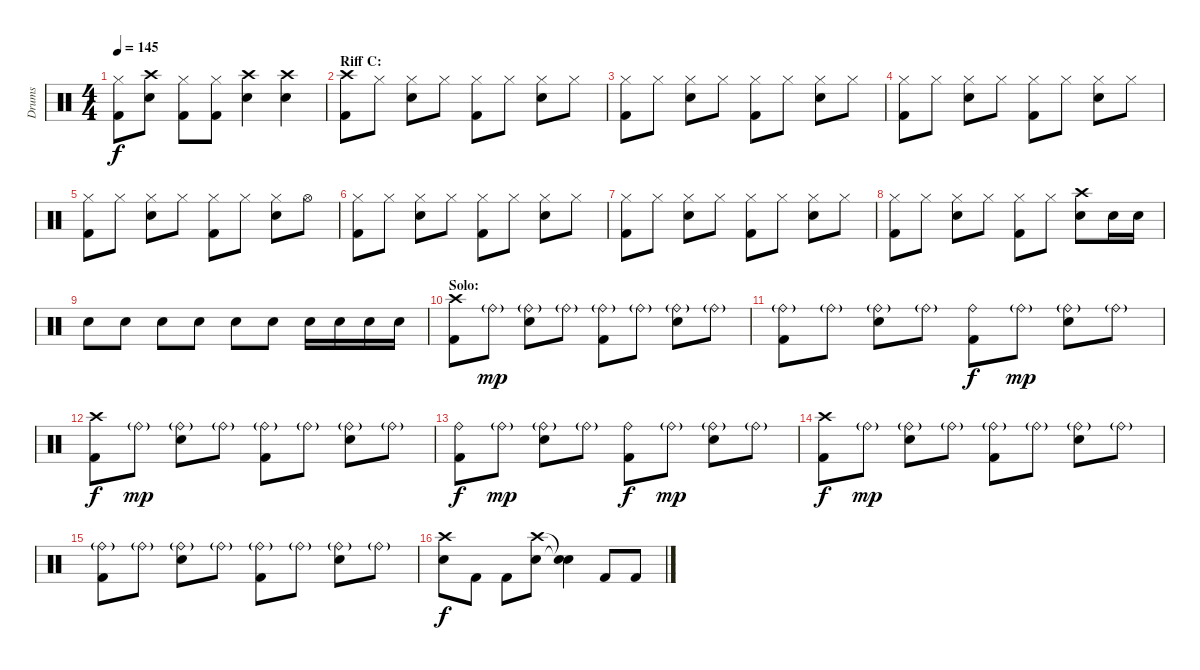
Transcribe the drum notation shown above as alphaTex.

\track ("Drums" "Drums") {instrument percussion}
\staff {score}
\articulation defaults
\ts (4 4)
\tempo 145
\clef neutral
\ks c
("Hi-Hat (closed)" "Kick (hit) 2").8{dy f} ("Crash high (hit)" "Electric Snare (hit)").8 ("Hi-Hat (closed)" "Kick (hit) 2").8 ("Hi-Hat (closed)" "Kick (hit) 2").8 ("Crash high (hit)" "Electric Snare (hit)").4 ("Crash high (hit)" "Electric Snare (hit)").4 |
\section ("" "Riff C:")
("Crash high (hit)" "Kick (hit) 2").8 "Hi-Hat (closed)".8 ("Hi-Hat (closed)" "Electric Snare (hit)").8 "Hi-Hat (closed)".8 ("Hi-Hat (closed)" "Kick (hit) 2").8 "Hi-Hat (closed)".8 ("Hi-Hat (closed)" "Electric Snare (hit)").8 "Hi-Hat (closed)".8 |
("Hi-Hat (closed)" "Kick (hit) 2").8 "Hi-Hat (closed)".8 ("Hi-Hat (closed)" "Electric Snare (hit)").8 "Hi-Hat (closed)".8 ("Hi-Hat (closed)" "Kick (hit) 2").8 "Hi-Hat (closed)".8 ("Hi-Hat (closed)" "Electric Snare (hit)").8 "Hi-Hat (closed)".8 |
("Hi-Hat (closed)" "Kick (hit) 2").8 "Hi-Hat (closed)".8 ("Hi-Hat (closed)" "Electric Snare (hit)").8 "Hi-Hat (closed)".8 ("Hi-Hat (closed)" "Kick (hit) 2").8 "Hi-Hat (closed)".8 ("Hi-Hat (closed)" "Electric Snare (hit)").8 "Hi-Hat (closed)".8 |
("Hi-Hat (closed)" "Kick (hit) 2").8 "Hi-Hat (closed)".8 ("Hi-Hat (closed)" "Electric Snare (hit)").8 "Hi-Hat (closed)".8 ("Hi-Hat (closed)" "Kick (hit) 2").8 "Hi-Hat (closed)".8 ("Hi-Hat (closed)" "Electric Snare (hit)").8 "Hi-Hat (open)".8 |
("Hi-Hat (closed)" "Kick (hit) 2").8 "Hi-Hat (closed)".8 ("Hi-Hat (closed)" "Electric Snare (hit)").8 "Hi-Hat (closed)".8 ("Hi-Hat (closed)" "Kick (hit) 2").8 "Hi-Hat (closed)".8 ("Hi-Hat (closed)" "Electric Snare (hit)").8 "Hi-Hat (closed)".8 |
("Hi-Hat (closed)" "Kick (hit) 2").8 "Hi-Hat (closed)".8 ("Hi-Hat (closed)" "Electric Snare (hit)").8 "Hi-Hat (closed)".8 ("Hi-Hat (closed)" "Kick (hit) 2").8 "Hi-Hat (closed)".8 ("Hi-Hat (closed)" "Electric Snare (hit)").8 "Hi-Hat (closed)".8 |
("Hi-Hat (closed)" "Kick (hit) 2").8 "Hi-Hat (closed)".8 ("Hi-Hat (closed)" "Electric Snare (hit)").8 "Hi-Hat (closed)".8 ("Hi-Hat (closed)" "Kick (hit) 2").8 "Hi-Hat (closed)".8 ("Crash high (hit)" "Electric Snare (hit)").8 "Electric Snare (hit)".16 "Electric Snare (hit)".16 |
"Electric Snare (hit)".8 "Electric Snare (hit)".8 "Electric Snare (hit)".8 "Electric Snare (hit)".8 "Electric Snare (hit)".8 "Electric Snare (hit)".8 "Electric Snare (hit)".16 "Electric Snare (hit)".16 "Electric Snare (hit)".16 "Electric Snare (hit)".16 |
\section ("" "Solo:")
("Crash high (hit)" "Kick (hit) 2").8 "Ride (bell)"{g}.8{dy mp} ("Ride (bell)"{g} "Electric Snare (hit)").8 "Ride (bell)"{g}.8 ("Ride (bell)"{g} "Kick (hit) 2").8 "Ride (bell)"{g}.8 ("Ride (bell)"{g} "Electric Snare (hit)").8 "Ride (bell)"{g}.8 |
("Ride (bell)"{g} "Kick (hit) 2").8 "Ride (bell)"{g}.8 ("Ride (bell)"{g} "Electric Snare (hit)").8 "Ride (bell)"{g}.8 ("Ride (bell)" "Kick (hit) 2").8{dy f} "Ride (bell)"{g}.8{dy mp} ("Ride (bell)"{g} "Electric Snare (hit)").8 "Ride (bell)"{g}.8 |
("Crash high (hit)" "Kick (hit) 2").8{dy f} "Ride (bell)"{g}.8{dy mp} ("Ride (bell)"{g} "Electric Snare (hit)").8 "Ride (bell)"{g}.8 ("Ride (bell)"{g} "Kick (hit) 2").8 "Ride (bell)"{g}.8 ("Ride (bell)"{g} "Electric Snare (hit)").8 "Ride (bell)"{g}.8 |
("Ride (bell)" "Kick (hit) 2").8{dy f} "Ride (bell)"{g}.8{dy mp} ("Ride (bell)"{g} "Electric Snare (hit)").8 "Ride (bell)"{g}.8 ("Ride (bell)" "Kick (hit) 2").8{dy f} "Ride (bell)"{g}.8{dy mp} ("Ride (bell)"{g} "Electric Snare (hit)").8 "Ride (bell)"{g}.8 |
("Crash high (hit)" "Kick (hit) 2").8{dy f} "Ride (bell)"{g}.8{dy mp} ("Ride (bell)"{g} "Electric Snare (hit)").8 "Ride (bell)"{g}.8 ("Ride (bell)"{g} "Kick (hit) 2").8 "Ride (bell)"{g}.8 ("Ride (bell)"{g} "Electric Snare (hit)").8 "Ride (bell)"{g}.8 |
("Ride (bell)"{g} "Kick (hit) 2").8 "Ride (bell)"{g}.8 ("Ride (bell)"{g} "Electric Snare (hit)").8 "Ride (bell)"{g}.8 ("Ride (bell)"{g} "Kick (hit) 2").8 "Ride (bell)"{g}.8 ("Ride (bell)"{g} "Electric Snare (hit)").8 "Ride (bell)"{g}.8 |
("Crash high (hit)" "Electric Snare (hit)").8{dy f} "Kick (hit) 2".8 "Kick (hit) 2".8 ("Crash high (hit)" "Electric Snare (hit)").8 ("Snare (hit)"{t} "Snare (hit)"{t}).4 "Kick (hit) 2".8 "Kick (hit) 2".8
